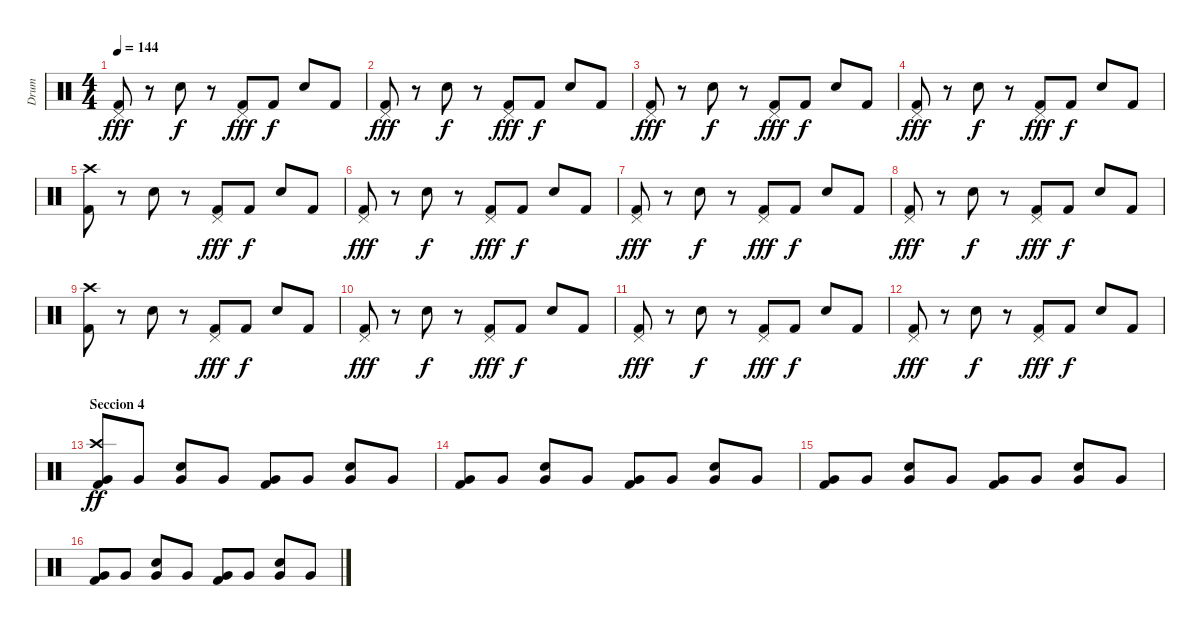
\track ("Drum" "Drum") {instrument percussion}
\staff {score}
\articulation defaults
\ts (4 4)
\tempo 144
\clef neutral
\ks c
("Pedal Hi-Hat (hit)" "Kick (hit) 2").8{dy fff} r.8 "Electric Snare (hit)".8{dy f} r.8 ("Pedal Hi-Hat (hit)" "Kick (hit) 2").8{dy fff} "Kick (hit) 2".8{dy f} "Electric Snare (hit)".8 "Kick (hit) 2".8 |
("Pedal Hi-Hat (hit)" "Kick (hit) 2").8{dy fff} r.8 "Electric Snare (hit)".8{dy f} r.8 ("Pedal Hi-Hat (hit)" "Kick (hit) 2").8{dy fff} "Kick (hit) 2".8{dy f} "Electric Snare (hit)".8 "Kick (hit) 2".8 |
("Pedal Hi-Hat (hit)" "Kick (hit) 2").8{dy fff} r.8 "Electric Snare (hit)".8{dy f} r.8 ("Pedal Hi-Hat (hit)" "Kick (hit) 2").8{dy fff} "Kick (hit) 2".8{dy f} "Electric Snare (hit)".8 "Kick (hit) 2".8 |
("Pedal Hi-Hat (hit)" "Kick (hit) 2").8{dy fff} r.8 "Electric Snare (hit)".8{dy f} r.8 ("Pedal Hi-Hat (hit)" "Kick (hit) 2").8{dy fff} "Kick (hit) 2".8{dy f} "Electric Snare (hit)".8 "Kick (hit) 2".8 |
("Crash high (hit)" "Kick (hit) 2").8 r.8 "Electric Snare (hit)".8 r.8 ("Pedal Hi-Hat (hit)" "Kick (hit) 2").8{dy fff} "Kick (hit) 2".8{dy f} "Electric Snare (hit)".8 "Kick (hit) 2".8 |
("Pedal Hi-Hat (hit)" "Kick (hit) 2").8{dy fff} r.8 "Electric Snare (hit)".8{dy f} r.8 ("Pedal Hi-Hat (hit)" "Kick (hit) 2").8{dy fff} "Kick (hit) 2".8{dy f} "Electric Snare (hit)".8 "Kick (hit) 2".8 |
("Pedal Hi-Hat (hit)" "Kick (hit) 2").8{dy fff} r.8 "Electric Snare (hit)".8{dy f} r.8 ("Pedal Hi-Hat (hit)" "Kick (hit) 2").8{dy fff} "Kick (hit) 2".8{dy f} "Electric Snare (hit)".8 "Kick (hit) 2".8 |
("Pedal Hi-Hat (hit)" "Kick (hit) 2").8{dy fff} r.8 "Electric Snare (hit)".8{dy f} r.8 ("Pedal Hi-Hat (hit)" "Kick (hit) 2").8{dy fff} "Kick (hit) 2".8{dy f} "Electric Snare (hit)".8 "Kick (hit) 2".8 |
("Crash high (hit)" "Kick (hit) 2").8 r.8 "Electric Snare (hit)".8 r.8 ("Pedal Hi-Hat (hit)" "Kick (hit) 2").8{dy fff} "Kick (hit) 2".8{dy f} "Electric Snare (hit)".8 "Kick (hit) 2".8 |
("Pedal Hi-Hat (hit)" "Kick (hit) 2").8{dy fff} r.8 "Electric Snare (hit)".8{dy f} r.8 ("Pedal Hi-Hat (hit)" "Kick (hit) 2").8{dy fff} "Kick (hit) 2".8{dy f} "Electric Snare (hit)".8 "Kick (hit) 2".8 |
("Pedal Hi-Hat (hit)" "Kick (hit) 2").8{dy fff} r.8 "Electric Snare (hit)".8{dy f} r.8 ("Pedal Hi-Hat (hit)" "Kick (hit) 2").8{dy fff} "Kick (hit) 2".8{dy f} "Electric Snare (hit)".8 "Kick (hit) 2".8 |
("Pedal Hi-Hat (hit)" "Kick (hit) 2").8{dy fff} r.8 "Electric Snare (hit)".8{dy f} r.8 ("Pedal Hi-Hat (hit)" "Kick (hit) 2").8{dy fff} "Kick (hit) 2".8{dy f} "Electric Snare (hit)".8 "Kick (hit) 2".8 |
\section ("" "Seccion 4")
("Crash high (hit)" "Very Low Tom (hit)" "Kick (hit) 2").8{dy ff volume 14} "Very Low Tom (hit)".8 ("Electric Snare (hit)" "Very Low Tom (hit)").8 "Very Low Tom (hit)".8 ("Very Low Tom (hit)" "Kick (hit) 2").8 "Very Low Tom (hit)".8 ("Electric Snare (hit)" "Very Low Tom (hit)").8 "Very Low Tom (hit)".8 |
("Very Low Tom (hit)" "Kick (hit) 2").8 "Very Low Tom (hit)".8 ("Electric Snare (hit)" "Very Low Tom (hit)").8 "Very Low Tom (hit)".8 ("Very Low Tom (hit)" "Kick (hit) 2").8 "Very Low Tom (hit)".8 ("Electric Snare (hit)" "Very Low Tom (hit)").8 "Very Low Tom (hit)".8 |
("Very Low Tom (hit)" "Kick (hit) 2").8 "Very Low Tom (hit)".8 ("Electric Snare (hit)" "Very Low Tom (hit)").8 "Very Low Tom (hit)".8 ("Very Low Tom (hit)" "Kick (hit) 2").8 "Very Low Tom (hit)".8 ("Electric Snare (hit)" "Very Low Tom (hit)").8 "Very Low Tom (hit)".8 |
("Very Low Tom (hit)" "Kick (hit) 2").8 "Very Low Tom (hit)".8 ("Electric Snare (hit)" "Very Low Tom (hit)").8 "Very Low Tom (hit)".8 ("Very Low Tom (hit)" "Kick (hit) 2").8 "Very Low Tom (hit)".8 ("Electric Snare (hit)" "Very Low Tom (hit)").8 "Very Low Tom (hit)".8
